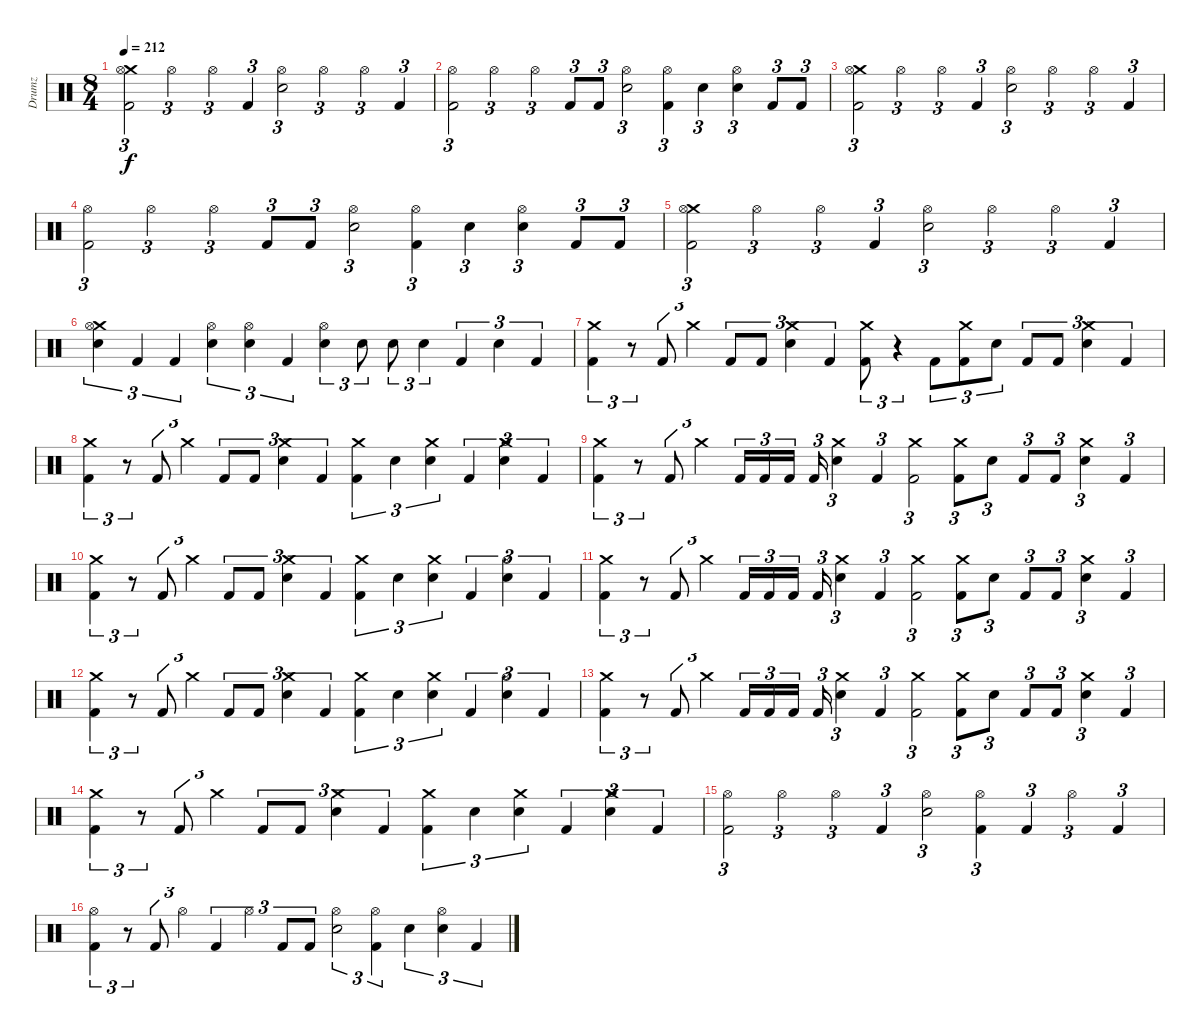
\track ("Drumz" "Drumz") {instrument percussion}
\staff {score}
\articulation defaults
\ts (8 4)
\tempo 212
\clef neutral
\ks c
("Crash medium (hit)" "Hi-Hat (open)" "Kick (hit) 2").2{tu (3 2) dy f} "Hi-Hat (open)".2{tu (3 2)} "Hi-Hat (open)".4{tu (3 2)} "Kick (hit) 2".4{tu (3 2)} ("Hi-Hat (open)" "Electric Snare (hit)").2{tu (3 2)} "Hi-Hat (open)".2{tu (3 2)} "Hi-Hat (open)".4{tu (3 2)} "Kick (hit) 2".4{tu (3 2)} |
("Hi-Hat (open)" "Kick (hit) 2").2{tu (3 2)} "Hi-Hat (open)".2{tu (3 2)} "Hi-Hat (open)".4{tu (3 2)} "Kick (hit) 2".8{tu (3 2)} "Kick (hit) 2".8{tu (3 2)} ("Hi-Hat (open)" "Electric Snare (hit)").2{tu (3 2)} ("Hi-Hat (open)" "Kick (hit) 2").4{tu (3 2)} "Electric Snare (hit)".4{tu (3 2)} ("Hi-Hat (open)" "Electric Snare (hit)").4{tu (3 2)} "Kick (hit) 2".8{tu (3 2)} "Kick (hit) 2".8{tu (3 2)} |
("Crash medium (hit)" "Hi-Hat (open)" "Kick (hit) 2").2{tu (3 2)} "Hi-Hat (open)".2{tu (3 2)} "Hi-Hat (open)".4{tu (3 2)} "Kick (hit) 2".4{tu (3 2)} ("Hi-Hat (open)" "Electric Snare (hit)").2{tu (3 2)} "Hi-Hat (open)".2{tu (3 2)} "Hi-Hat (open)".4{tu (3 2)} "Kick (hit) 2".4{tu (3 2)} |
("Hi-Hat (open)" "Kick (hit) 2").2{tu (3 2)} "Hi-Hat (open)".2{tu (3 2)} "Hi-Hat (open)".4{tu (3 2)} "Kick (hit) 2".8{tu (3 2)} "Kick (hit) 2".8{tu (3 2)} ("Hi-Hat (open)" "Electric Snare (hit)").2{tu (3 2)} ("Hi-Hat (open)" "Kick (hit) 2").4{tu (3 2)} "Electric Snare (hit)".4{tu (3 2)} ("Hi-Hat (open)" "Electric Snare (hit)").4{tu (3 2)} "Kick (hit) 2".8{tu (3 2)} "Kick (hit) 2".8{tu (3 2)} |
("Crash medium (hit)" "Hi-Hat (open)" "Kick (hit) 2").2{tu (3 2)} "Hi-Hat (open)".2{tu (3 2)} "Hi-Hat (open)".4{tu (3 2)} "Kick (hit) 2".4{tu (3 2)} ("Hi-Hat (open)" "Electric Snare (hit)").2{tu (3 2)} "Hi-Hat (open)".2{tu (3 2)} "Hi-Hat (open)".4{tu (3 2)} "Kick (hit) 2".4{tu (3 2)} |
("Crash medium (hit)" "Hi-Hat (open)" "Electric Snare (hit)").4{tu (3 2)} "Kick (hit) 2".4{tu (3 2)} "Kick (hit) 2".4{tu (3 2)} ("Hi-Hat (open)" "Electric Snare (hit)").4{tu (3 2)} ("Hi-Hat (open)" "Electric Snare (hit)").4{tu (3 2)} "Kick (hit) 2".4{tu (3 2)} ("Hi-Hat (open)" "Electric Snare (hit)").4{tu (3 2)} "Electric Snare (hit)".8{tu (3 2)} "Electric Snare (hit)".8{tu (3 2)} "Electric Snare (hit)".4{tu (3 2)} "Kick (hit) 2".4{tu (3 2)} "Electric Snare (hit)".4{tu (3 2)} "Kick (hit) 2".4{tu (3 2)} |
("Crash medium (hit)" "Kick (hit) 2").4{tu (3 2)} r.8{tu (3 2)} "Kick (hit) 2".8{tu (3 2)} "Crash medium (hit)".4{tu (3 2)} "Kick (hit) 2".8{tu (3 2)} "Kick (hit) 2".8{tu (3 2)} ("Crash medium (hit)" "Electric Snare (hit)").4{tu (3 2)} "Kick (hit) 2".4{tu (3 2)} ("Crash medium (hit)" "Kick (hit) 2").8{tu (3 2)} r.4{tu (3 2)} "Kick (hit) 2".8{tu (3 2)} ("Crash medium (hit)" "Kick (hit) 2").8{tu (3 2)} "Electric Snare (hit)".8{tu (3 2)} "Kick (hit) 2".8{tu (3 2)} "Kick (hit) 2".8{tu (3 2)} ("Crash medium (hit)" "Electric Snare (hit)").4{tu (3 2)} "Kick (hit) 2".4{tu (3 2)} |
("Crash medium (hit)" "Kick (hit) 2").4{tu (3 2)} r.8{tu (3 2)} "Kick (hit) 2".8{tu (3 2)} "Crash medium (hit)".4{tu (3 2)} "Kick (hit) 2".8{tu (3 2)} "Kick (hit) 2".8{tu (3 2)} ("Crash medium (hit)" "Electric Snare (hit)").4{tu (3 2)} "Kick (hit) 2".4{tu (3 2)} ("Crash medium (hit)" "Kick (hit) 2").4{tu (3 2)} "Electric Snare (hit)".4{tu (3 2)} ("Crash medium (hit)" "Electric Snare (hit)").4{tu (3 2)} "Kick (hit) 2".4{tu (3 2)} ("Crash medium (hit)" "Electric Snare (hit)").4{tu (3 2)} "Kick (hit) 2".4{tu (3 2)} |
("Crash medium (hit)" "Kick (hit) 2").4{tu (3 2)} r.8{tu (3 2)} "Kick (hit) 2".8{tu (3 2)} "Crash medium (hit)".4{tu (3 2)} "Kick (hit) 2".16{tu (3 2)} "Kick (hit) 2".16{tu (3 2)} "Kick (hit) 2".16{tu (3 2) beam splitsecondary} "Kick (hit) 2".16{tu (3 2)} ("Crash medium (hit)" "Electric Snare (hit)").4{tu (3 2)} "Kick (hit) 2".4{tu (3 2)} ("Crash medium (hit)" "Kick (hit) 2").2{tu (3 2)} ("Crash medium (hit)" "Kick (hit) 2").8{tu (3 2)} "Electric Snare (hit)".8{tu (3 2)} "Kick (hit) 2".8{tu (3 2)} "Kick (hit) 2".8{tu (3 2)} ("Crash medium (hit)" "Electric Snare (hit)").4{tu (3 2)} "Kick (hit) 2".4{tu (3 2)} |
("Crash medium (hit)" "Kick (hit) 2").4{tu (3 2)} r.8{tu (3 2)} "Kick (hit) 2".8{tu (3 2)} "Crash medium (hit)".4{tu (3 2)} "Kick (hit) 2".8{tu (3 2)} "Kick (hit) 2".8{tu (3 2)} ("Crash medium (hit)" "Electric Snare (hit)").4{tu (3 2)} "Kick (hit) 2".4{tu (3 2)} ("Crash medium (hit)" "Kick (hit) 2").4{tu (3 2)} "Electric Snare (hit)".4{tu (3 2)} ("Crash medium (hit)" "Electric Snare (hit)").4{tu (3 2)} "Kick (hit) 2".4{tu (3 2)} ("Hi-Hat (open)" "Electric Snare (hit)").4{tu (3 2)} "Kick (hit) 2".4{tu (3 2)} |
("Crash medium (hit)" "Kick (hit) 2").4{tu (3 2)} r.8{tu (3 2)} "Kick (hit) 2".8{tu (3 2)} "Crash medium (hit)".4{tu (3 2)} "Kick (hit) 2".16{tu (3 2)} "Kick (hit) 2".16{tu (3 2)} "Kick (hit) 2".16{tu (3 2) beam splitsecondary} "Kick (hit) 2".16{tu (3 2)} ("Crash medium (hit)" "Electric Snare (hit)").4{tu (3 2)} "Kick (hit) 2".4{tu (3 2)} ("Crash medium (hit)" "Kick (hit) 2").2{tu (3 2)} ("Crash medium (hit)" "Kick (hit) 2").8{tu (3 2)} "Electric Snare (hit)".8{tu (3 2)} "Kick (hit) 2".8{tu (3 2)} "Kick (hit) 2".8{tu (3 2)} ("Crash medium (hit)" "Electric Snare (hit)").4{tu (3 2)} "Kick (hit) 2".4{tu (3 2)} |
("Crash medium (hit)" "Kick (hit) 2").4{tu (3 2)} r.8{tu (3 2)} "Kick (hit) 2".8{tu (3 2)} "Crash medium (hit)".4{tu (3 2)} "Kick (hit) 2".8{tu (3 2)} "Kick (hit) 2".8{tu (3 2)} ("Crash medium (hit)" "Electric Snare (hit)").4{tu (3 2)} "Kick (hit) 2".4{tu (3 2)} ("Crash medium (hit)" "Kick (hit) 2").4{tu (3 2)} "Electric Snare (hit)".4{tu (3 2)} ("Crash medium (hit)" "Electric Snare (hit)").4{tu (3 2)} "Kick (hit) 2".4{tu (3 2)} ("Hi-Hat (open)" "Electric Snare (hit)").4{tu (3 2)} "Kick (hit) 2".4{tu (3 2)} |
("Crash medium (hit)" "Kick (hit) 2").4{tu (3 2)} r.8{tu (3 2)} "Kick (hit) 2".8{tu (3 2)} "Crash medium (hit)".4{tu (3 2)} "Kick (hit) 2".16{tu (3 2)} "Kick (hit) 2".16{tu (3 2)} "Kick (hit) 2".16{tu (3 2) beam splitsecondary} "Kick (hit) 2".16{tu (3 2)} ("Crash medium (hit)" "Electric Snare (hit)").4{tu (3 2)} "Kick (hit) 2".4{tu (3 2)} ("Crash medium (hit)" "Kick (hit) 2").2{tu (3 2)} ("Crash medium (hit)" "Kick (hit) 2").8{tu (3 2)} "Electric Snare (hit)".8{tu (3 2)} "Kick (hit) 2".8{tu (3 2)} "Kick (hit) 2".8{tu (3 2)} ("Crash medium (hit)" "Electric Snare (hit)").4{tu (3 2)} "Kick (hit) 2".4{tu (3 2)} |
("Crash medium (hit)" "Kick (hit) 2").4{tu (3 2)} r.8{tu (3 2)} "Kick (hit) 2".8{tu (3 2)} "Crash medium (hit)".4{tu (3 2)} "Kick (hit) 2".8{tu (3 2)} "Kick (hit) 2".8{tu (3 2)} ("Crash medium (hit)" "Electric Snare (hit)").4{tu (3 2)} "Kick (hit) 2".4{tu (3 2)} ("Crash medium (hit)" "Kick (hit) 2").4{tu (3 2)} "Electric Snare (hit)".4{tu (3 2)} ("Crash medium (hit)" "Electric Snare (hit)").4{tu (3 2)} "Kick (hit) 2".4{tu (3 2)} ("Crash medium (hit)" "Electric Snare (hit)").4{tu (3 2)} "Kick (hit) 2".4{tu (3 2)} |
("Hi-Hat (open)" "Kick (hit) 2").2{tu (3 2)} "Hi-Hat (open)".2{tu (3 2)} "Hi-Hat (open)".4{tu (3 2)} "Kick (hit) 2".4{tu (3 2)} ("Hi-Hat (open)" "Electric Snare (hit)").2{tu (3 2)} ("Hi-Hat (open)" "Kick (hit) 2").4{tu (3 2)} "Kick (hit) 2".4{tu (3 2)} "Hi-Hat (open)".4{tu (3 2)} "Kick (hit) 2".4{tu (3 2)} |
("Hi-Hat (open)" "Kick (hit) 2").4{tu (3 2)} r.8{tu (3 2)} "Kick (hit) 2".8{tu (3 2)} "Hi-Hat (open)".4{tu (3 2)} "Kick (hit) 2".4{tu (3 2)} "Hi-Hat (open)".4{tu (3 2)} "Kick (hit) 2".8{tu (3 2)} "Kick (hit) 2".8{tu (3 2)} ("Hi-Hat (open)" "Electric Snare (hit)").2{tu (3 2)} ("Hi-Hat (open)" "Kick (hit) 2").4{tu (3 2)} "Electric Snare (hit)".4{tu (3 2)} ("Hi-Hat (open)" "Electric Snare (hit)").4{tu (3 2)} "Kick (hit) 2".4{tu (3 2)}
